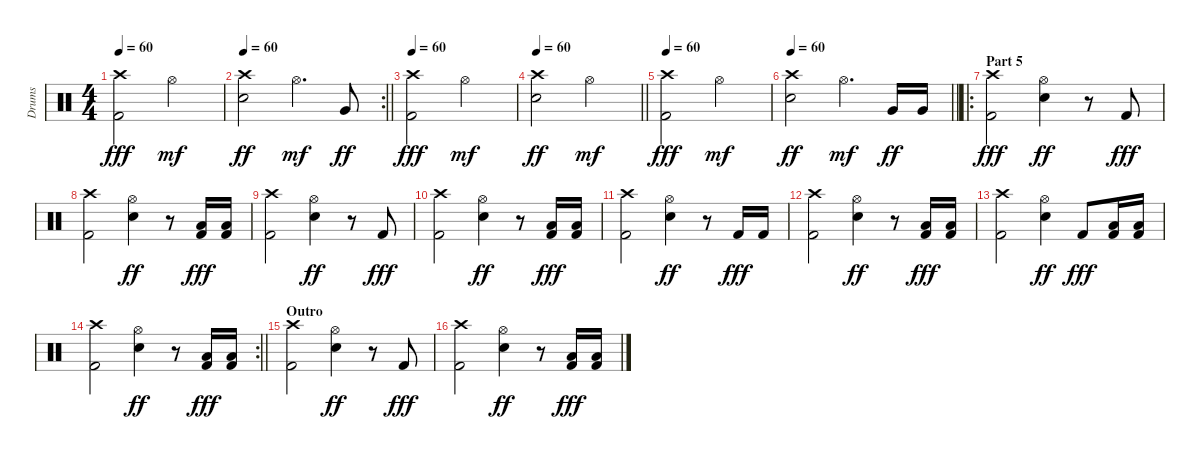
\track ("Drums" "Drums") {instrument percussion}
\staff {score}
\articulation defaults
\ts (4 4)
\tempo 60
\clef neutral
\ks c
("Crash high (hit)" "Kick (hit) 2").2{dy fff} "Hi-Hat (open)".2{dy mf} |
\rc 2
\tempo 60
\barLineRight lightlight
("Crash high (hit)" "Electric Snare (hit)").2{dy ff} "Hi-Hat (open)".4{d dy mf} "Very Low Tom (hit)".8{dy ff} |
\tempo 60
("Crash high (hit)" "Kick (hit) 2").2{dy fff} "Hi-Hat (open)".2{dy mf} |
\tempo 60
\barLineRight lightlight
("Crash high (hit)" "Electric Snare (hit)").2{dy ff} "Hi-Hat (open)".2{dy mf} |
\tempo 60
("Crash high (hit)" "Kick (hit) 2").2{dy fff} "Hi-Hat (open)".2{dy mf} |
\tempo 60
\barLineRight lightlight
("Crash high (hit)" "Electric Snare (hit)").2{dy ff} "Hi-Hat (open)".4{d dy mf} "Very Low Tom (hit)".16{dy ff} "Very Low Tom (hit)".16 |
\ro
\section ("" "Part 5")
("Crash high (hit)" "Kick (hit) 2").2{dy fff} ("Hi-Hat (open)" "Electric Snare (hit)").4{dy ff} r.8 "Kick (hit) 2".8{dy fff} |
("Crash high (hit)" "Kick (hit) 2").2 ("Hi-Hat (open)" "Electric Snare (hit)").4{dy ff} r.8 ("Low Floor Tom (hit)" "Kick (hit) 2").16{dy fff} ("Low Floor Tom (hit)" "Kick (hit) 2").16 |
("Crash high (hit)" "Kick (hit) 2").2 ("Hi-Hat (open)" "Electric Snare (hit)").4{dy ff} r.8 "Kick (hit) 2".8{dy fff} |
("Crash high (hit)" "Kick (hit) 2").2 ("Hi-Hat (open)" "Electric Snare (hit)").4{dy ff} r.8 ("Low Floor Tom (hit)" "Kick (hit) 2").16{dy fff} ("Low Floor Tom (hit)" "Kick (hit) 2").16 |
("Crash high (hit)" "Kick (hit) 2").2 ("Hi-Hat (open)" "Electric Snare (hit)").4{dy ff} r.8 "Kick (hit) 2".16{dy fff} "Kick (hit) 2".16 |
("Crash high (hit)" "Kick (hit) 2").2 ("Hi-Hat (open)" "Electric Snare (hit)").4{dy ff} r.8 ("Low Floor Tom (hit)" "Kick (hit) 2").16{dy fff} ("Low Floor Tom (hit)" "Kick (hit) 2").16 |
("Crash high (hit)" "Kick (hit) 2").2 ("Hi-Hat (open)" "Electric Snare (hit)").4{dy ff} "Kick (hit) 2".8{dy fff} ("Low Floor Tom (hit)" "Kick (hit) 2").16 ("Low Floor Tom (hit)" "Kick (hit) 2").16 |
\rc 2
\barLineRight lightlight
("Crash high (hit)" "Kick (hit) 2").2 ("Hi-Hat (open)" "Electric Snare (hit)").4{dy ff} r.8 ("Low Floor Tom (hit)" "Kick (hit) 2").16{dy fff} ("Low Floor Tom (hit)" "Kick (hit) 2").16 |
\section ("" "Outro")
("Crash high (hit)" "Kick (hit) 2").2 ("Hi-Hat (open)" "Electric Snare (hit)").4{dy ff} r.8 "Kick (hit) 2".8{dy fff} |
("Crash high (hit)" "Kick (hit) 2").2 ("Hi-Hat (open)" "Electric Snare (hit)").4{dy ff} r.8 ("Low Floor Tom (hit)" "Kick (hit) 2").16{dy fff} ("Low Floor Tom (hit)" "Kick (hit) 2").16
